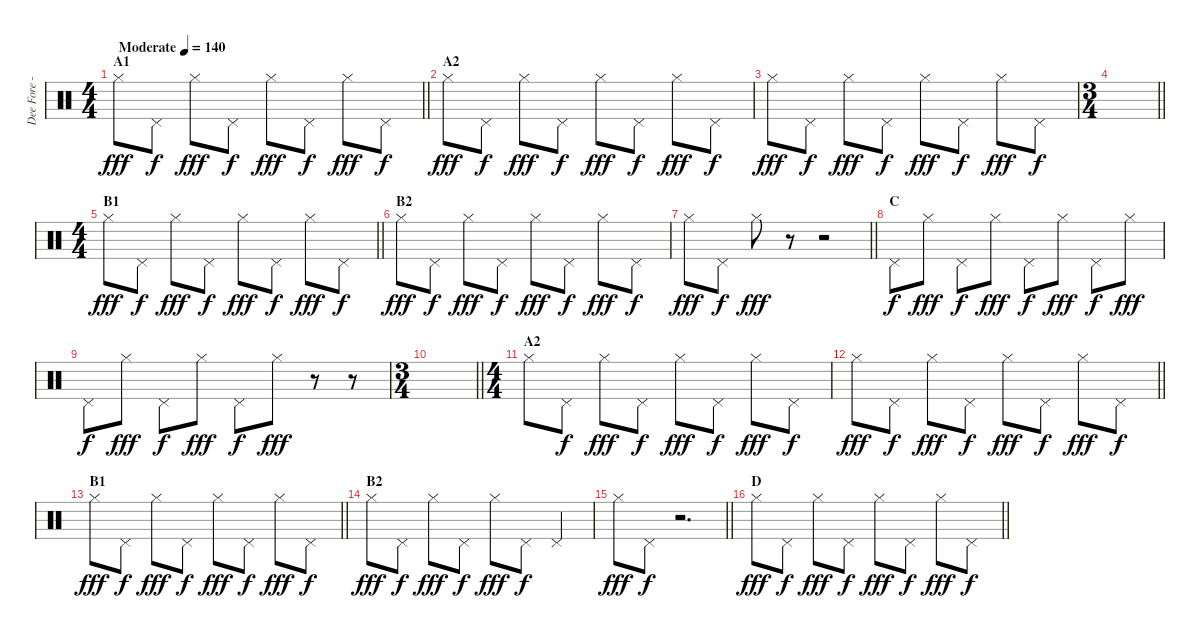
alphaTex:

\track ("Dee Fore - Drums" "Dee Fore -") {instrument percussion}
\staff {score}
\articulation defaults
\ts (4 4)
\section ("" "A1")
\tempo (140 "Moderate")
\clef neutral
\barLineRight lightlight
\ks c "Hi-Hat (closed)".8{dy fff} "Pedal Hi-Hat (hit)".8{dy f} "Hi-Hat (closed)".8{dy fff} "Pedal Hi-Hat (hit)".8{dy f} "Hi-Hat (closed)".8{dy fff} "Pedal Hi-Hat (hit)".8{dy f} "Hi-Hat (closed)".8{dy fff} "Pedal Hi-Hat (hit)".8{dy f}
|
\section ("" "A2")
"Hi-Hat (closed)".8{dy fff} "Pedal Hi-Hat (hit)".8{dy f} "Hi-Hat (closed)".8{dy fff} "Pedal Hi-Hat (hit)".8{dy f} "Hi-Hat (closed)".8{dy fff} "Pedal Hi-Hat (hit)".8{dy f} "Hi-Hat (closed)".8{dy fff} "Pedal Hi-Hat (hit)".8{dy f} |
"Hi-Hat (closed)".8{dy fff} "Pedal Hi-Hat (hit)".8{dy f} "Hi-Hat (closed)".8{dy fff} "Pedal Hi-Hat (hit)".8{dy f} "Hi-Hat (closed)".8{dy fff} "Pedal Hi-Hat (hit)".8{dy f} "Hi-Hat (closed)".8{dy fff} "Pedal Hi-Hat (hit)".8{dy f} |
\ts (3 4)
\barLineRight lightlight
|
\ts (4 4)
\section ("" "B1")
\barLineRight lightlight "Hi-Hat (closed)".8{dy fff} "Pedal Hi-Hat (hit)".8{dy f} "Hi-Hat (closed)".8{dy fff} "Pedal Hi-Hat (hit)".8{dy f} "Hi-Hat (closed)".8{dy fff} "Pedal Hi-Hat (hit)".8{dy f} "Hi-Hat (closed)".8{dy fff} "Pedal Hi-Hat (hit)".8{dy f}
|
\section ("" "B2")
"Hi-Hat (closed)".8{dy fff} "Pedal Hi-Hat (hit)".8{dy f} "Hi-Hat (closed)".8{dy fff} "Pedal Hi-Hat (hit)".8{dy f} "Hi-Hat (closed)".8{dy fff} "Pedal Hi-Hat (hit)".8{dy f} "Hi-Hat (closed)".8{dy fff} "Pedal Hi-Hat (hit)".8{dy f} |
\barLineRight lightlight "Hi-Hat (closed)".8{dy fff} "Pedal Hi-Hat (hit)".8{dy f} "Hi-Hat (closed)".8{dy fff}
r.8 r.2 |
\section ("" "C")
"Pedal Hi-Hat (hit)".8{dy f} "Hi-Hat (closed)".8{dy fff} "Pedal Hi-Hat (hit)".8{dy f} "Hi-Hat (closed)".8{dy fff} "Pedal Hi-Hat (hit)".8{dy f} "Hi-Hat (closed)".8{dy fff} "Pedal Hi-Hat (hit)".8{dy f} "Hi-Hat (closed)".8{dy fff} |
"Pedal Hi-Hat (hit)".8{dy f} "Hi-Hat (closed)".8{dy fff} "Pedal Hi-Hat (hit)".8{dy f} "Hi-Hat (closed)".8{dy fff} "Pedal Hi-Hat (hit)".8{dy f} "Hi-Hat (closed)".8{dy fff} r.8 r.8 |
\ts (3 4)
\barLineRight lightlight
|
\ts (4 4)
\section ("" "A2")
"Hi-Hat (closed)".8 "Pedal Hi-Hat (hit)".8{dy f} "Hi-Hat (closed)".8{dy fff} "Pedal Hi-Hat (hit)".8{dy f} "Hi-Hat (closed)".8{dy fff} "Pedal Hi-Hat (hit)".8{dy f} "Hi-Hat (closed)".8{dy fff} "Pedal Hi-Hat (hit)".8{dy f} |
\barLineRight lightlight "Hi-Hat (closed)".8{dy fff} "Pedal Hi-Hat (hit)".8{dy f} "Hi-Hat (closed)".8{dy fff} "Pedal Hi-Hat (hit)".8{dy f} "Hi-Hat (closed)".8{dy fff} "Pedal Hi-Hat (hit)".8{dy f} "Hi-Hat (closed)".8{dy fff} "Pedal Hi-Hat (hit)".8{dy f}
|
\section ("" "B1")
\barLineRight lightlight "Hi-Hat (closed)".8{dy fff} "Pedal Hi-Hat (hit)".8{dy f} "Hi-Hat (closed)".8{dy fff} "Pedal Hi-Hat (hit)".8{dy f} "Hi-Hat (closed)".8{dy fff} "Pedal Hi-Hat (hit)".8{dy f} "Hi-Hat (closed)".8{dy fff} "Pedal Hi-Hat (hit)".8{dy f}
|
\section ("" "B2")
"Hi-Hat (closed)".8{dy fff} "Pedal Hi-Hat (hit)".8{dy f} "Hi-Hat (closed)".8{dy fff} "Pedal Hi-Hat (hit)".8{dy f} "Hi-Hat (closed)".8{dy fff} "Pedal Hi-Hat (hit)".8{dy f} "Pedal Hi-Hat (hit)".4 |
\barLineRight lightlight "Hi-Hat (closed)".8{dy fff} "Pedal Hi-Hat (hit)".8{dy f}
r.2{d} |
\section ("" "D")
\barLineRight lightlight "Hi-Hat (closed)".8{dy fff} "Pedal Hi-Hat (hit)".8{dy f} "Hi-Hat (closed)".8{dy fff} "Pedal Hi-Hat (hit)".8{dy f} "Hi-Hat (closed)".8{dy fff} "Pedal Hi-Hat (hit)".8{dy f} "Hi-Hat (closed)".8{dy fff} "Pedal Hi-Hat (hit)".8{dy f}
